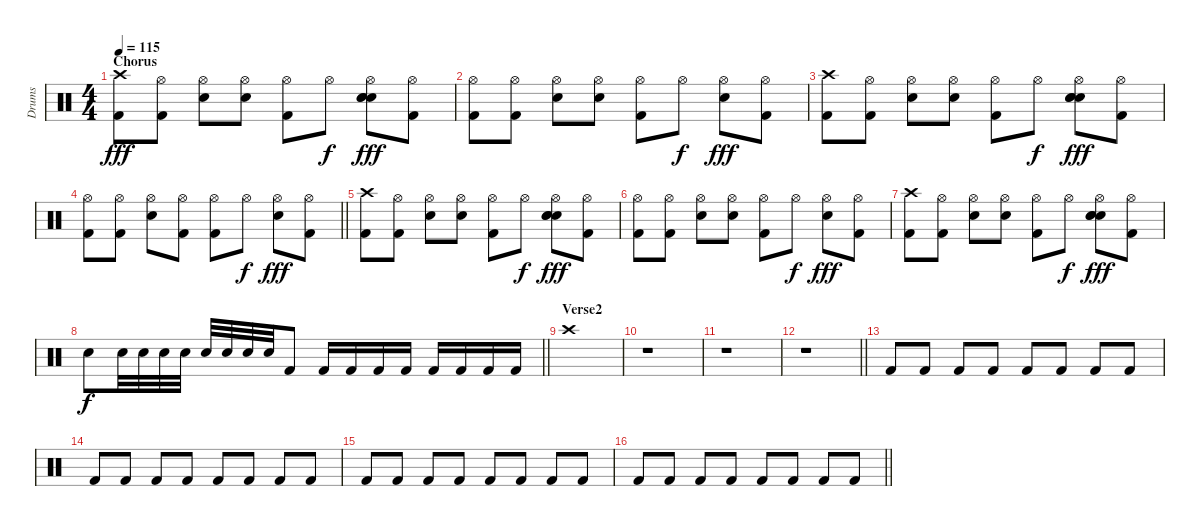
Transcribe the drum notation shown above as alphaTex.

\track ("Drums" "Drums") {instrument percussion}
\staff {score}
\articulation defaults
\ts (4 4)
\section ("" "Chorus")
\tempo 115
\clef neutral
\ks c
("Crash high (hit)" "Kick (hit) 2").8{dy fff} ("Hi-Hat (open)" "Kick (hit) 2").8 ("Hi-Hat (open)" "Electric Snare (hit)").8 ("Hi-Hat (open)" "Electric Snare (hit)").8 ("Hi-Hat (open)" "Kick (hit) 2").8 "Hi-Hat (open)".8{dy f} ("Hi-Hat (open)" "Electric Snare (hit)" "Hand Clap (hit)" "Hand Clap (hit)").8{dy fff} ("Hi-Hat (open)" "Kick (hit) 2").8 |
("Hi-Hat (open)" "Kick (hit) 2").8 ("Hi-Hat (open)" "Kick (hit) 2").8 ("Hi-Hat (open)" "Electric Snare (hit)").8 ("Hi-Hat (open)" "Electric Snare (hit)").8 ("Hi-Hat (open)" "Kick (hit) 2").8 "Hi-Hat (open)".8{dy f} ("Hi-Hat (open)" "Electric Snare (hit)").8{dy fff} ("Hi-Hat (open)" "Kick (hit) 2").8 |
("Crash high (hit)" "Kick (hit) 2").8 ("Hi-Hat (open)" "Kick (hit) 2").8 ("Hi-Hat (open)" "Electric Snare (hit)").8 ("Hi-Hat (open)" "Electric Snare (hit)").8 ("Hi-Hat (open)" "Kick (hit) 2").8 "Hi-Hat (open)".8{dy f} ("Hi-Hat (open)" "Electric Snare (hit)" "Hand Clap (hit)" "Hand Clap (hit)").8{dy fff} ("Hi-Hat (open)" "Kick (hit) 2").8 |
\barLineRight lightlight
("Hi-Hat (open)" "Kick (hit) 2").8 ("Hi-Hat (open)" "Kick (hit) 2").8 ("Hi-Hat (open)" "Electric Snare (hit)").8 ("Hi-Hat (open)" "Kick (hit) 2").8 ("Hi-Hat (open)" "Kick (hit) 2").8 "Hi-Hat (open)".8{dy f} ("Hi-Hat (open)" "Electric Snare (hit)").8{dy fff} ("Hi-Hat (open)" "Kick (hit) 2").8 |
("Crash high (hit)" "Kick (hit) 2").8 ("Hi-Hat (open)" "Kick (hit) 2").8 ("Hi-Hat (open)" "Electric Snare (hit)").8 ("Hi-Hat (open)" "Electric Snare (hit)").8 ("Hi-Hat (open)" "Kick (hit) 2").8 "Hi-Hat (open)".8{dy f} ("Hi-Hat (open)" "Electric Snare (hit)" "Hand Clap (hit)" "Hand Clap (hit)").8{dy fff} ("Hi-Hat (open)" "Kick (hit) 2").8 |
("Hi-Hat (open)" "Kick (hit) 2").8 ("Hi-Hat (open)" "Kick (hit) 2").8 ("Hi-Hat (open)" "Electric Snare (hit)").8 ("Hi-Hat (open)" "Electric Snare (hit)").8 ("Hi-Hat (open)" "Kick (hit) 2").8 "Hi-Hat (open)".8{dy f} ("Hi-Hat (open)" "Electric Snare (hit)").8{dy fff} ("Hi-Hat (open)" "Kick (hit) 2").8 |
("Crash high (hit)" "Kick (hit) 2").8 ("Hi-Hat (open)" "Kick (hit) 2").8 ("Hi-Hat (open)" "Electric Snare (hit)").8 ("Hi-Hat (open)" "Electric Snare (hit)").8 ("Hi-Hat (open)" "Kick (hit) 2").8 "Hi-Hat (open)".8{dy f} ("Hi-Hat (open)" "Electric Snare (hit)" "Hand Clap (hit)" "Hand Clap (hit)").8{dy fff} ("Hi-Hat (open)" "Kick (hit) 2").8 |
\barLineRight lightlight "Electric Snare (hit)".8{dy f} "Electric Snare (hit)".32 "Electric Snare (hit)".32 "Electric Snare (hit)".32 "Electric Snare (hit)".32 "Electric Snare (hit)".32 "Electric Snare (hit)".32 "Electric Snare (hit)".32 "Electric Snare (hit)".32 "Kick (hit) 2".8 "Kick (hit) 2".16 "Kick (hit) 2".16 "Kick (hit) 2".16 "Kick (hit) 2".16 "Kick (hit) 2".16 "Kick (hit) 2".16 "Kick (hit) 2".16 "Kick (hit) 2".16
|
\section ("" "Verse2")
"Crash high (hit)".1 |
r.1 |
r.1 |
\barLineRight lightlight
r.1 |
"Kick (hit) 2".8 "Kick (hit) 2".8 "Kick (hit) 2".8 "Kick (hit) 2".8 "Kick (hit) 2".8 "Kick (hit) 2".8 "Kick (hit) 2".8 "Kick (hit) 2".8 |
"Kick (hit) 2".8 "Kick (hit) 2".8 "Kick (hit) 2".8 "Kick (hit) 2".8 "Kick (hit) 2".8 "Kick (hit) 2".8 "Kick (hit) 2".8 "Kick (hit) 2".8 |
"Kick (hit) 2".8 "Kick (hit) 2".8 "Kick (hit) 2".8 "Kick (hit) 2".8 "Kick (hit) 2".8 "Kick (hit) 2".8 "Kick (hit) 2".8 "Kick (hit) 2".8 |
\barLineRight lightlight "Kick (hit) 2".8 "Kick (hit) 2".8 "Kick (hit) 2".8 "Kick (hit) 2".8 "Kick (hit) 2".8 "Kick (hit) 2".8 "Kick (hit) 2".8 "Kick (hit) 2".8
